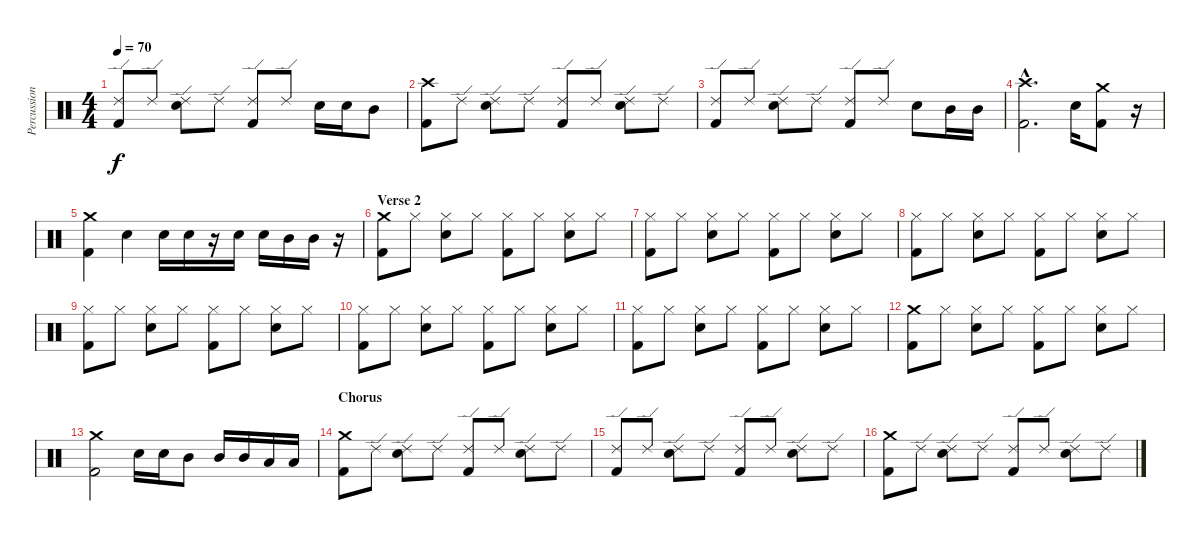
\track ("Percussion" "Percussion") {instrument percussion}
\staff {score}
\articulation defaults
\ts (4 4)
\tempo 70
\clef neutral
\ks c
("Ride (edge) 2" "Kick (hit) 2").8{dy f} "Ride (edge) 2".8 ("Ride (edge) 2" "Snare (hit) 2").8 "Ride (edge) 2".8 ("Ride (edge) 2" "Kick (hit) 2").8 "Ride (edge) 2".8 "Snare (hit) 2".16 "Snare (hit) 2".16 "Mid Tom (hit)".8 |
("Crash high (hit)" "Kick (hit) 2").8 "Ride (edge) 2".8 ("Ride (edge) 2" "Snare (hit) 2").8 "Ride (edge) 2".8 ("Ride (edge) 2" "Kick (hit) 2").8 "Ride (edge) 2".8 ("Ride (edge) 2" "Snare (hit) 2").8 "Ride (edge) 2".8 |
("Ride (edge) 2" "Kick (hit) 2").8 "Ride (edge) 2".8 ("Ride (edge) 2" "Snare (hit) 2").8 "Ride (edge) 2".8 ("Ride (edge) 2" "Kick (hit) 2").8 "Ride (edge) 2".8 "Snare (hit) 2".8 "Mid Tom (hit)".16 "Mid Tom (hit)".16 |
("Crash high (hit)"{hac} "Kick (hit) 2"{hac}).2{d} "Snare (hit) 2".16 ("Crash medium (hit)" "Kick (hit) 2").8 r.16 |
("Crash medium (hit)" "Kick (hit) 2").4 "Snare (hit) 2".4 "Snare (hit) 2".16 "Snare (hit) 2".16 r.16 "Snare (hit) 2".16 "Snare (hit) 2".16 "Mid Tom (hit)".16 "Mid Tom (hit)".16 r.16 |
\section ("" "Verse 2")
("Crash medium (hit)" "Kick (hit) 2").8 "Hi-Hat (closed)".8 ("Hi-Hat (closed)" "Snare (hit) 2").8 "Hi-Hat (closed)".8 ("Hi-Hat (closed)" "Kick (hit) 2").8 "Hi-Hat (closed)".8 ("Hi-Hat (closed)" "Snare (hit) 2").8 "Hi-Hat (closed)".8 |
("Hi-Hat (closed)" "Kick (hit) 2").8 "Hi-Hat (closed)".8 ("Hi-Hat (closed)" "Snare (hit) 2").8 "Hi-Hat (closed)".8 ("Hi-Hat (closed)" "Kick (hit) 2").8 "Hi-Hat (closed)".8 ("Hi-Hat (closed)" "Snare (hit) 2").8 "Hi-Hat (closed)".8 |
("Hi-Hat (closed)" "Kick (hit) 2").8 "Hi-Hat (closed)".8 ("Hi-Hat (closed)" "Snare (hit) 2").8 "Hi-Hat (closed)".8 ("Hi-Hat (closed)" "Kick (hit) 2").8 "Hi-Hat (closed)".8 ("Hi-Hat (closed)" "Snare (hit) 2").8 "Hi-Hat (closed)".8 |
("Hi-Hat (closed)" "Kick (hit) 2").8 "Hi-Hat (closed)".8 ("Hi-Hat (closed)" "Snare (hit) 2").8 "Hi-Hat (closed)".8 ("Hi-Hat (closed)" "Kick (hit) 2").8 "Hi-Hat (closed)".8 ("Hi-Hat (closed)" "Snare (hit) 2").8 "Hi-Hat (closed)".8 |
("Hi-Hat (closed)" "Kick (hit) 2").8 "Hi-Hat (closed)".8 ("Hi-Hat (closed)" "Snare (hit) 2").8 "Hi-Hat (closed)".8 ("Hi-Hat (closed)" "Kick (hit) 2").8 "Hi-Hat (closed)".8 ("Hi-Hat (closed)" "Snare (hit) 2").8 "Hi-Hat (closed)".8 |
("Hi-Hat (closed)" "Kick (hit) 2").8 "Hi-Hat (closed)".8 ("Hi-Hat (closed)" "Snare (hit) 2").8 "Hi-Hat (closed)".8 ("Hi-Hat (closed)" "Kick (hit) 2").8 "Hi-Hat (closed)".8 ("Hi-Hat (closed)" "Snare (hit) 2").8 "Hi-Hat (closed)".8 |
("Crash medium (hit)" "Kick (hit) 2").8 "Hi-Hat (closed)".8 ("Hi-Hat (closed)" "Snare (hit) 2").8 "Hi-Hat (closed)".8 ("Hi-Hat (closed)" "Kick (hit) 2").8 "Hi-Hat (closed)".8 ("Hi-Hat (closed)" "Snare (hit) 2").8 "Hi-Hat (closed)".8 |
("Crash medium (hit)" "Kick (hit) 2").2 "Snare (hit) 2".16 "Snare (hit) 2".16 "Mid Tom (hit)".8 "Mid Tom (hit)".16 "Mid Tom (hit)".16 "Low Tom (hit)".16 "Low Tom (hit)".16 |
\section ("" "Chorus")
("Crash medium (hit)" "Kick (hit) 2").8 "Ride (edge) 2".8 ("Ride (edge) 2" "Snare (hit) 2").8 "Ride (edge) 2".8 ("Ride (edge) 2" "Kick (hit) 2").8 "Ride (edge) 2".8 ("Ride (edge) 2" "Snare (hit) 2").8 "Ride (edge) 2".8 |
("Ride (edge) 2" "Kick (hit) 2").8 "Ride (edge) 2".8 ("Ride (edge) 2" "Snare (hit) 2").8 "Ride (edge) 2".8 ("Ride (edge) 2" "Kick (hit) 2").8 "Ride (edge) 2".8 ("Ride (edge) 2" "Snare (hit) 2").8 "Ride (edge) 2".8 |
("Crash medium (hit)" "Kick (hit) 2").8 "Ride (edge) 2".8 ("Ride (edge) 2" "Snare (hit) 2").8 "Ride (edge) 2".8 ("Ride (edge) 2" "Kick (hit) 2").8 "Ride (edge) 2".8 ("Ride (edge) 2" "Snare (hit) 2").8 "Ride (edge) 2".8
